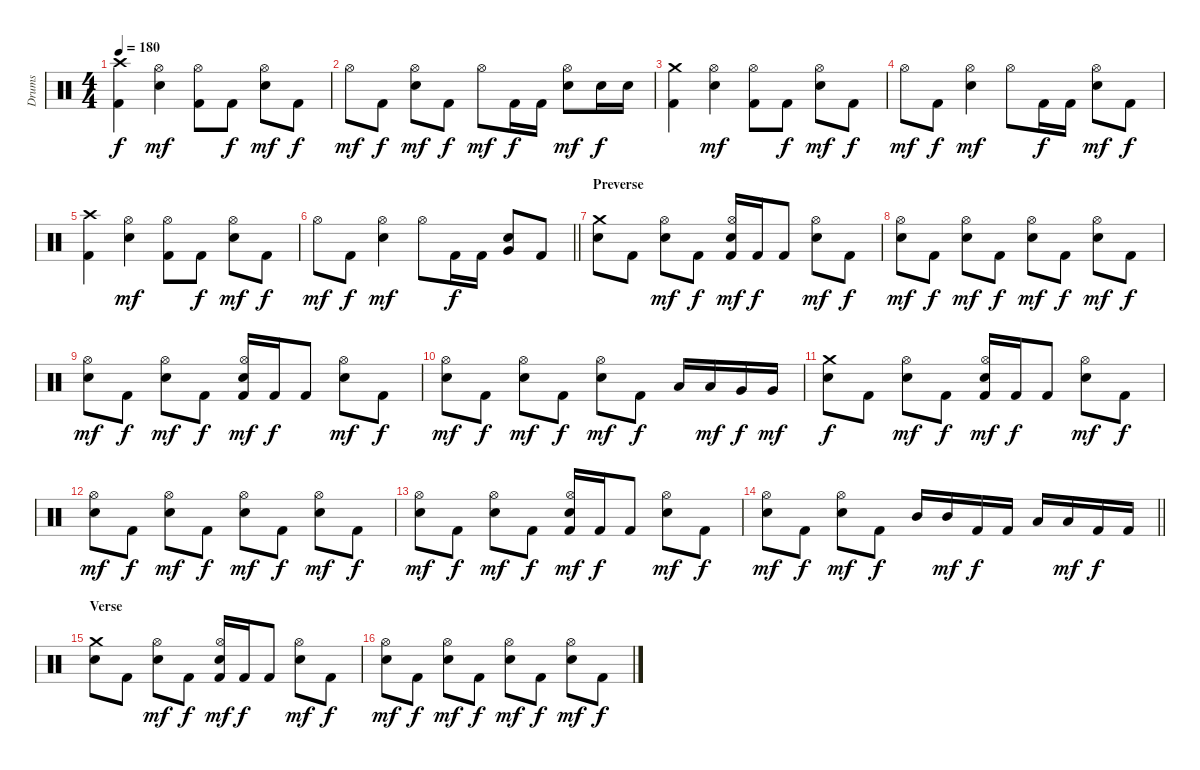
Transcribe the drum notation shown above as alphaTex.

\track ("Drums" "Drums") {instrument percussion}
\staff {score}
\articulation defaults
\ts (4 4)
\tempo 180
\clef neutral
\ks c
("Kick (hit) 2" "Crash high (hit)").4{dy f} ("Hi-Hat (open)" "Electric Snare (hit)").4{dy mf} ("Kick (hit) 2" "Hi-Hat (open)").8 "Kick (hit) 2".8{dy f} ("Hi-Hat (open)" "Electric Snare (hit)").8{dy mf} "Kick (hit) 2".8{dy f} |
"Hi-Hat (open)".8{dy mf} "Kick (hit) 2".8{dy f} ("Hi-Hat (open)" "Electric Snare (hit)").8{dy mf} "Kick (hit) 2".8{dy f} "Hi-Hat (open)".8{dy mf} "Kick (hit) 2".16{dy f} "Kick (hit) 2".16 ("Hi-Hat (open)" "Electric Snare (hit)").8{dy mf} "Electric Snare (hit)".16{dy f} "Electric Snare (hit)".16 |
("Kick (hit) 2" "Crash medium (hit)").4 ("Hi-Hat (open)" "Electric Snare (hit)").4{dy mf} ("Kick (hit) 2" "Hi-Hat (open)").8 "Kick (hit) 2".8{dy f} ("Hi-Hat (open)" "Electric Snare (hit)").8{dy mf} "Kick (hit) 2".8{dy f} |
"Hi-Hat (open)".8{dy mf} "Kick (hit) 2".8{dy f} ("Hi-Hat (open)" "Electric Snare (hit)").4{dy mf} "Hi-Hat (open)".8 "Kick (hit) 2".16{dy f} "Kick (hit) 2".16 ("Hi-Hat (open)" "Electric Snare (hit)").8{dy mf} "Kick (hit) 2".8{dy f} |
("Kick (hit) 2" "Crash high (hit)").4 ("Hi-Hat (open)" "Electric Snare (hit)").4{dy mf} ("Kick (hit) 2" "Hi-Hat (open)").8 "Kick (hit) 2".8{dy f} ("Hi-Hat (open)" "Electric Snare (hit)").8{dy mf} "Kick (hit) 2".8{dy f} |
\barLineRight lightlight "Hi-Hat (open)".8{dy mf} "Kick (hit) 2".8{dy f}
("Hi-Hat (open)" "Electric Snare (hit)").4{dy mf} "Hi-Hat (open)".8 "Kick (hit) 2".16{dy f} "Kick (hit) 2".16 ("Very Low Tom (hit)" "Electric Snare (hit)").8 "Kick (hit) 2".8 |
\section ("" "Preverse")
("Crash medium (hit)" "Electric Snare (hit)").8 "Kick (hit) 2".8 ("Hi-Hat (open)" "Electric Snare (hit)").8{dy mf} "Kick (hit) 2".8{dy f} ("Kick (hit) 2" "Hi-Hat (open)" "Electric Snare (hit)").16{dy mf} "Kick (hit) 2".16{dy f} "Kick (hit) 2".8 ("Hi-Hat (open)" "Electric Snare (hit)").8{dy mf} "Kick (hit) 2".8{dy f} |
("Hi-Hat (open)" "Electric Snare (hit)").8{dy mf} "Kick (hit) 2".8{dy f} ("Hi-Hat (open)" "Electric Snare (hit)").8{dy mf} "Kick (hit) 2".8{dy f} ("Hi-Hat (open)" "Electric Snare (hit)").8{dy mf} "Kick (hit) 2".8{dy f} ("Hi-Hat (open)" "Electric Snare (hit)").8{dy mf} "Kick (hit) 2".8{dy f} |
("Hi-Hat (open)" "Electric Snare (hit)").8{dy mf} "Kick (hit) 2".8{dy f} ("Hi-Hat (open)" "Electric Snare (hit)").8{dy mf} "Kick (hit) 2".8{dy f} ("Kick (hit) 2" "Hi-Hat (open)" "Electric Snare (hit)").16{dy mf} "Kick (hit) 2".16{dy f} "Kick (hit) 2".8 ("Hi-Hat (open)" "Electric Snare (hit)").8{dy mf} "Kick (hit) 2".8{dy f} |
("Hi-Hat (open)" "Electric Snare (hit)").8{dy mf} "Kick (hit) 2".8{dy f} ("Hi-Hat (open)" "Electric Snare (hit)").8{dy mf} "Kick (hit) 2".8{dy f} ("Hi-Hat (open)" "Electric Snare (hit)").8{dy mf} "Kick (hit) 2".8{dy f} "Low Tom (hit)".16 "Low Tom (hit)".16{dy mf} "Very Low Tom (hit)".16{dy f} "Very Low Tom (hit)".16{dy mf} |
("Crash medium (hit)" "Electric Snare (hit)").8{dy f} "Kick (hit) 2".8 ("Hi-Hat (open)" "Electric Snare (hit)").8{dy mf} "Kick (hit) 2".8{dy f} ("Kick (hit) 2" "Hi-Hat (open)" "Electric Snare (hit)").16{dy mf} "Kick (hit) 2".16{dy f} "Kick (hit) 2".8 ("Hi-Hat (open)" "Electric Snare (hit)").8{dy mf} "Kick (hit) 2".8{dy f} |
("Hi-Hat (open)" "Electric Snare (hit)").8{dy mf} "Kick (hit) 2".8{dy f} ("Hi-Hat (open)" "Electric Snare (hit)").8{dy mf} "Kick (hit) 2".8{dy f} ("Hi-Hat (open)" "Electric Snare (hit)").8{dy mf} "Kick (hit) 2".8{dy f} ("Hi-Hat (open)" "Electric Snare (hit)").8{dy mf} "Kick (hit) 2".8{dy f} |
("Hi-Hat (open)" "Electric Snare (hit)").8{dy mf} "Kick (hit) 2".8{dy f} ("Hi-Hat (open)" "Electric Snare (hit)").8{dy mf} "Kick (hit) 2".8{dy f} ("Kick (hit) 2" "Hi-Hat (open)" "Electric Snare (hit)").16{dy mf} "Kick (hit) 2".16{dy f} "Kick (hit) 2".8 ("Hi-Hat (open)" "Electric Snare (hit)").8{dy mf} "Kick (hit) 2".8{dy f} |
\barLineRight lightlight
("Hi-Hat (open)" "Electric Snare (hit)").8{dy mf} "Kick (hit) 2".8{dy f} ("Hi-Hat (open)" "Electric Snare (hit)").8{dy mf} "Kick (hit) 2".8{dy f} "Mid Tom (hit)".16 "Mid Tom (hit)".16{dy mf} "Kick (hit) 2".16{dy f} "Kick (hit) 2".16 "Low Tom (hit)".16 "Low Tom (hit)".16{dy mf} "Kick (hit) 2".16{dy f} "Kick (hit) 2".16 |
\section ("" "Verse")
("Crash medium (hit)" "Electric Snare (hit)").8 "Kick (hit) 2".8 ("Hi-Hat (open)" "Electric Snare (hit)").8{dy mf} "Kick (hit) 2".8{dy f} ("Kick (hit) 2" "Hi-Hat (open)" "Electric Snare (hit)").16{dy mf} "Kick (hit) 2".16{dy f} "Kick (hit) 2".8 ("Hi-Hat (open)" "Electric Snare (hit)").8{dy mf} "Kick (hit) 2".8{dy f} |
("Hi-Hat (open)" "Electric Snare (hit)").8{dy mf} "Kick (hit) 2".8{dy f} ("Hi-Hat (open)" "Electric Snare (hit)").8{dy mf} "Kick (hit) 2".8{dy f} ("Hi-Hat (open)" "Electric Snare (hit)").8{dy mf} "Kick (hit) 2".8{dy f} ("Hi-Hat (open)" "Electric Snare (hit)").8{dy mf} "Kick (hit) 2".8{dy f}
